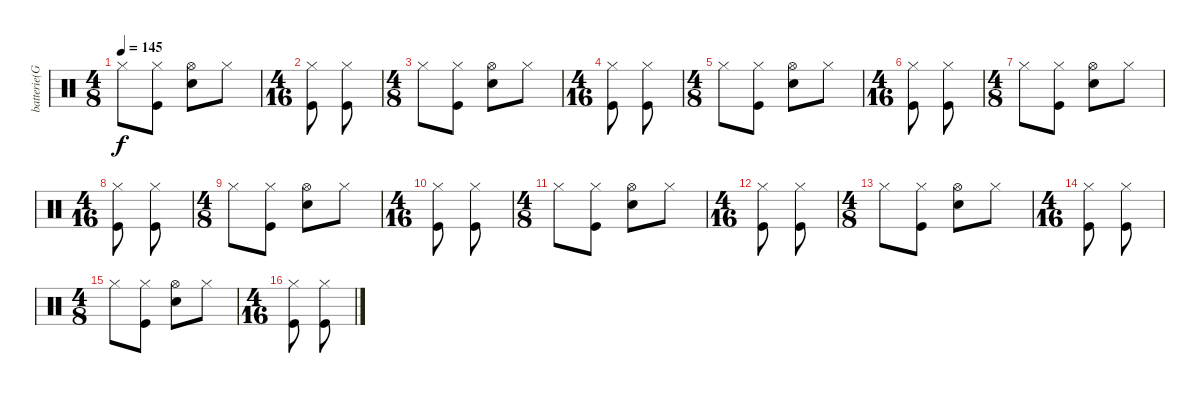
\track ("batterie(Granberg)" "batterie(G") {instrument percussion}
\staff {score}
\articulation defaults
\ts (4 8)
\tempo 145
\clef neutral
\ks c "Hi-Hat (closed)".8{dy f}
("Hi-Hat (closed)" "Kick (hit)").8 ("Hi-Hat (open)" "Snare (hit) 2").8 "Hi-Hat (closed)".8 |
\ts (4 16)
("Hi-Hat (closed)" "Kick (hit)").8 ("Hi-Hat (closed)" "Kick (hit)").8 |
\ts (4 8)
"Hi-Hat (closed)".8 ("Hi-Hat (closed)" "Kick (hit)").8 ("Hi-Hat (open)" "Snare (hit) 2").8 "Hi-Hat (closed)".8 |
\ts (4 16)
("Hi-Hat (closed)" "Kick (hit)").8 ("Hi-Hat (closed)" "Kick (hit)").8 |
\ts (4 8)
"Hi-Hat (closed)".8 ("Hi-Hat (closed)" "Kick (hit)").8 ("Hi-Hat (open)" "Snare (hit) 2").8 "Hi-Hat (closed)".8 |
\ts (4 16)
("Hi-Hat (closed)" "Kick (hit)").8 ("Hi-Hat (closed)" "Kick (hit)").8 |
\ts (4 8)
"Hi-Hat (closed)".8 ("Hi-Hat (closed)" "Kick (hit)").8 ("Hi-Hat (open)" "Snare (hit) 2").8 "Hi-Hat (closed)".8 |
\ts (4 16)
("Hi-Hat (closed)" "Kick (hit)").8 ("Hi-Hat (closed)" "Kick (hit)").8 |
\ts (4 8)
"Hi-Hat (closed)".8 ("Hi-Hat (closed)" "Kick (hit)").8 ("Hi-Hat (open)" "Snare (hit) 2").8 "Hi-Hat (closed)".8 |
\ts (4 16)
("Hi-Hat (closed)" "Kick (hit)").8 ("Hi-Hat (closed)" "Kick (hit)").8 |
\ts (4 8)
"Hi-Hat (closed)".8 ("Hi-Hat (closed)" "Kick (hit)").8 ("Hi-Hat (open)" "Snare (hit) 2").8 "Hi-Hat (closed)".8 |
\ts (4 16)
("Hi-Hat (closed)" "Kick (hit)").8 ("Hi-Hat (closed)" "Kick (hit)").8 |
\ts (4 8)
"Hi-Hat (closed)".8 ("Hi-Hat (closed)" "Kick (hit)").8 ("Hi-Hat (open)" "Snare (hit) 2").8 "Hi-Hat (closed)".8 |
\ts (4 16)
("Hi-Hat (closed)" "Kick (hit)").8 ("Hi-Hat (closed)" "Kick (hit)").8 |
\ts (4 8)
"Hi-Hat (closed)".8 ("Hi-Hat (closed)" "Kick (hit)").8 ("Hi-Hat (open)" "Snare (hit) 2").8 "Hi-Hat (closed)".8 |
\ts (4 16)
("Hi-Hat (closed)" "Kick (hit)").8 ("Hi-Hat (closed)" "Kick (hit)").8
